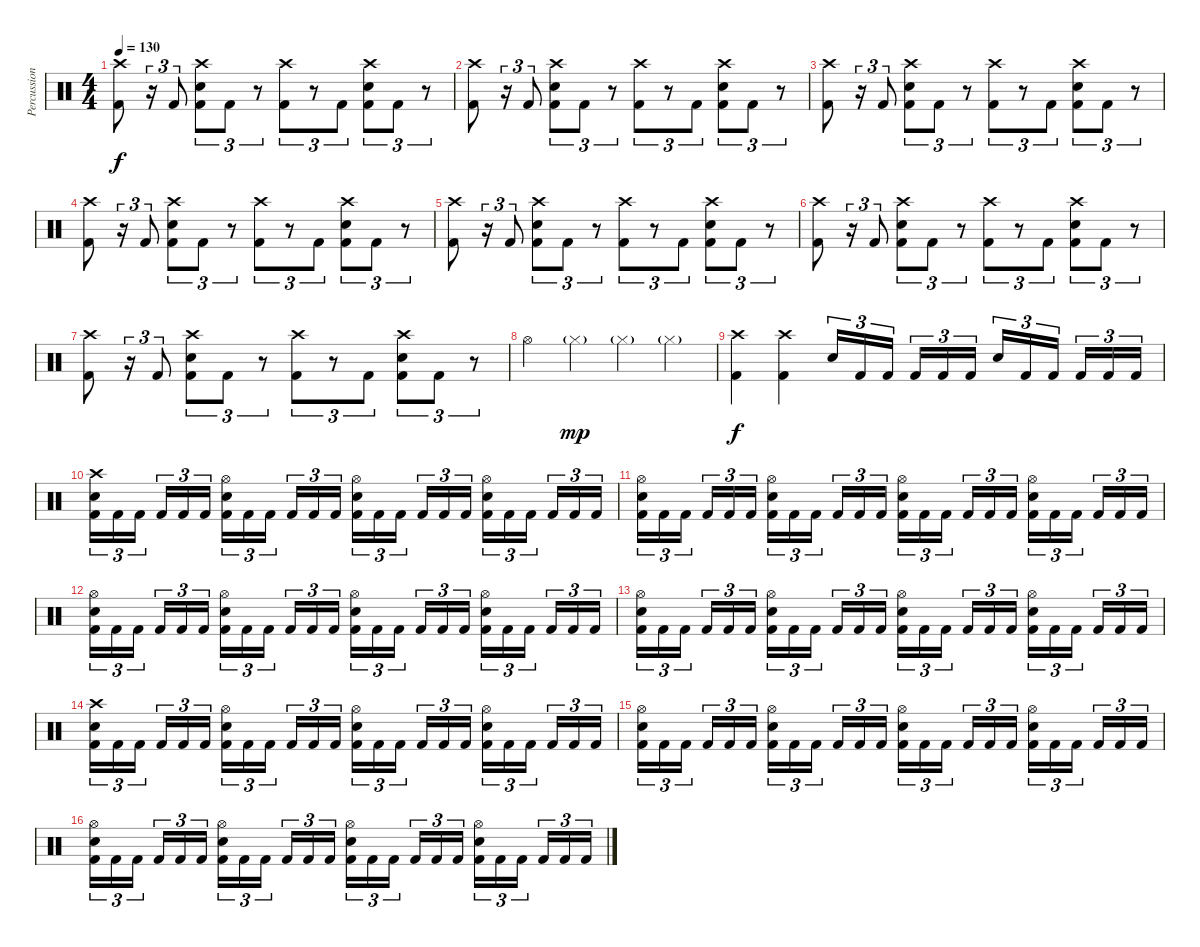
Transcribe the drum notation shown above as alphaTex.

\track ("Percussion" "Percussion") {instrument percussion}
\staff {score}
\articulation defaults
\ts (4 4)
\tempo 130
\clef neutral
\ks c
("Crash high (hit)" "Kick (hit) 2").8{dy f} r.16{tu (3 2)} "Kick (hit) 2".8{tu (3 2)} ("Crash high (hit)" "Electric Snare (hit)" "Kick (hit) 2").8{tu (3 2)} "Kick (hit) 2".8{tu (3 2)} r.8{tu (3 2)} ("Crash high (hit)" "Kick (hit) 2").8{tu (3 2)} r.8{tu (3 2)} "Kick (hit) 2".8{tu (3 2)} ("Crash high (hit)" "Electric Snare (hit)" "Kick (hit) 2").8{tu (3 2)} "Kick (hit) 2".8{tu (3 2)} r.8{tu (3 2)} |
("Crash high (hit)" "Kick (hit) 2").8 r.16{tu (3 2)} "Kick (hit) 2".8{tu (3 2)} ("Crash high (hit)" "Electric Snare (hit)" "Kick (hit) 2").8{tu (3 2)} "Kick (hit) 2".8{tu (3 2)} r.8{tu (3 2)} ("Crash high (hit)" "Kick (hit) 2").8{tu (3 2)} r.8{tu (3 2)} "Kick (hit) 2".8{tu (3 2)} ("Crash high (hit)" "Electric Snare (hit)" "Kick (hit) 2").8{tu (3 2)} "Kick (hit) 2".8{tu (3 2)} r.8{tu (3 2)} |
("Crash high (hit)" "Kick (hit) 2").8 r.16{tu (3 2)} "Kick (hit) 2".8{tu (3 2)} ("Crash high (hit)" "Electric Snare (hit)" "Kick (hit) 2").8{tu (3 2)} "Kick (hit) 2".8{tu (3 2)} r.8{tu (3 2)} ("Crash high (hit)" "Kick (hit) 2").8{tu (3 2)} r.8{tu (3 2)} "Kick (hit) 2".8{tu (3 2)} ("Crash high (hit)" "Electric Snare (hit)" "Kick (hit) 2").8{tu (3 2)} "Kick (hit) 2".8{tu (3 2)} r.8{tu (3 2)} |
("Crash high (hit)" "Kick (hit) 2").8 r.16{tu (3 2)} "Kick (hit) 2".8{tu (3 2)} ("Crash high (hit)" "Electric Snare (hit)" "Kick (hit) 2").8{tu (3 2)} "Kick (hit) 2".8{tu (3 2)} r.8{tu (3 2)} ("Crash high (hit)" "Kick (hit) 2").8{tu (3 2)} r.8{tu (3 2)} "Kick (hit) 2".8{tu (3 2)} ("Crash high (hit)" "Electric Snare (hit)" "Kick (hit) 2").8{tu (3 2)} "Kick (hit) 2".8{tu (3 2)} r.8{tu (3 2)} |
("Crash high (hit)" "Kick (hit) 2").8 r.16{tu (3 2)} "Kick (hit) 2".8{tu (3 2)} ("Crash high (hit)" "Electric Snare (hit)" "Kick (hit) 2").8{tu (3 2)} "Kick (hit) 2".8{tu (3 2)} r.8{tu (3 2)} ("Crash high (hit)" "Kick (hit) 2").8{tu (3 2)} r.8{tu (3 2)} "Kick (hit) 2".8{tu (3 2)} ("Crash high (hit)" "Electric Snare (hit)" "Kick (hit) 2").8{tu (3 2)} "Kick (hit) 2".8{tu (3 2)} r.8{tu (3 2)} |
("Crash high (hit)" "Kick (hit) 2").8 r.16{tu (3 2)} "Kick (hit) 2".8{tu (3 2)} ("Crash high (hit)" "Electric Snare (hit)" "Kick (hit) 2").8{tu (3 2)} "Kick (hit) 2".8{tu (3 2)} r.8{tu (3 2)} ("Crash high (hit)" "Kick (hit) 2").8{tu (3 2)} r.8{tu (3 2)} "Kick (hit) 2".8{tu (3 2)} ("Crash high (hit)" "Electric Snare (hit)" "Kick (hit) 2").8{tu (3 2)} "Kick (hit) 2".8{tu (3 2)} r.8{tu (3 2)} |
("Crash high (hit)" "Kick (hit) 2").8 r.16{tu (3 2)} "Kick (hit) 2".8{tu (3 2)} ("Crash high (hit)" "Electric Snare (hit)" "Kick (hit) 2").8{tu (3 2)} "Kick (hit) 2".8{tu (3 2)} r.8{tu (3 2)} ("Crash high (hit)" "Kick (hit) 2").8{tu (3 2)} r.8{tu (3 2)} "Kick (hit) 2".8{tu (3 2)} ("Crash high (hit)" "Electric Snare (hit)" "Kick (hit) 2").8{tu (3 2)} "Kick (hit) 2".8{tu (3 2)} r.8{tu (3 2)} |
"Hi-Hat (open)".4 "Hi-Hat (closed)"{g}.4{dy mp} "Hi-Hat (closed)"{g}.4 "Hi-Hat (closed)"{g}.4 |
("Crash high (hit)" "Kick (hit) 2").4{dy f} ("Crash high (hit)" "Kick (hit) 2").4 "Electric Snare (hit)".16{tu (3 2)} "Kick (hit) 2".16{tu (3 2)} "Kick (hit) 2".16{tu (3 2) beam splitsecondary} "Kick (hit) 2".16{tu (3 2)} "Kick (hit) 2".16{tu (3 2)} "Kick (hit) 2".16{tu (3 2)} "Electric Snare (hit)".16{tu (3 2)} "Kick (hit) 2".16{tu (3 2)} "Kick (hit) 2".16{tu (3 2) beam splitsecondary} "Kick (hit) 2".16{tu (3 2)} "Kick (hit) 2".16{tu (3 2)} "Kick (hit) 2".16{tu (3 2)} |
("Crash high (hit)" "Electric Snare (hit)" "Kick (hit) 2").16{tu (3 2)} "Kick (hit) 2".16{tu (3 2)} "Kick (hit) 2".16{tu (3 2) beam splitsecondary} "Kick (hit) 2".16{tu (3 2)} "Kick (hit) 2".16{tu (3 2)} "Kick (hit) 2".16{tu (3 2)} ("Hi-Hat (open)" "Electric Snare (hit)" "Kick (hit) 2").16{tu (3 2)} "Kick (hit) 2".16{tu (3 2)} "Kick (hit) 2".16{tu (3 2) beam splitsecondary} "Kick (hit) 2".16{tu (3 2)} "Kick (hit) 2".16{tu (3 2)} "Kick (hit) 2".16{tu (3 2)} ("Hi-Hat (open)" "Electric Snare (hit)" "Kick (hit) 2").16{tu (3 2)} "Kick (hit) 2".16{tu (3 2)} "Kick (hit) 2".16{tu (3 2) beam splitsecondary} "Kick (hit) 2".16{tu (3 2)} "Kick (hit) 2".16{tu (3 2)} "Kick (hit) 2".16{tu (3 2)} ("Hi-Hat (open)" "Electric Snare (hit)" "Kick (hit) 2").16{tu (3 2)} "Kick (hit) 2".16{tu (3 2)} "Kick (hit) 2".16{tu (3 2) beam splitsecondary} "Kick (hit) 2".16{tu (3 2)} "Kick (hit) 2".16{tu (3 2)} "Kick (hit) 2".16{tu (3 2)} |
("Hi-Hat (open)" "Electric Snare (hit)" "Kick (hit) 2").16{tu (3 2)} "Kick (hit) 2".16{tu (3 2)} "Kick (hit) 2".16{tu (3 2) beam splitsecondary} "Kick (hit) 2".16{tu (3 2)} "Kick (hit) 2".16{tu (3 2)} "Kick (hit) 2".16{tu (3 2)} ("Hi-Hat (open)" "Electric Snare (hit)" "Kick (hit) 2").16{tu (3 2)} "Kick (hit) 2".16{tu (3 2)} "Kick (hit) 2".16{tu (3 2) beam splitsecondary} "Kick (hit) 2".16{tu (3 2)} "Kick (hit) 2".16{tu (3 2)} "Kick (hit) 2".16{tu (3 2)} ("Hi-Hat (open)" "Electric Snare (hit)" "Kick (hit) 2").16{tu (3 2)} "Kick (hit) 2".16{tu (3 2)} "Kick (hit) 2".16{tu (3 2) beam splitsecondary} "Kick (hit) 2".16{tu (3 2)} "Kick (hit) 2".16{tu (3 2)} "Kick (hit) 2".16{tu (3 2)} ("Hi-Hat (open)" "Electric Snare (hit)" "Kick (hit) 2").16{tu (3 2)} "Kick (hit) 2".16{tu (3 2)} "Kick (hit) 2".16{tu (3 2) beam splitsecondary} "Kick (hit) 2".16{tu (3 2)} "Kick (hit) 2".16{tu (3 2)} "Kick (hit) 2".16{tu (3 2)} |
("Hi-Hat (open)" "Electric Snare (hit)" "Kick (hit) 2").16{tu (3 2)} "Kick (hit) 2".16{tu (3 2)} "Kick (hit) 2".16{tu (3 2) beam splitsecondary} "Kick (hit) 2".16{tu (3 2)} "Kick (hit) 2".16{tu (3 2)} "Kick (hit) 2".16{tu (3 2)} ("Hi-Hat (open)" "Electric Snare (hit)" "Kick (hit) 2").16{tu (3 2)} "Kick (hit) 2".16{tu (3 2)} "Kick (hit) 2".16{tu (3 2) beam splitsecondary} "Kick (hit) 2".16{tu (3 2)} "Kick (hit) 2".16{tu (3 2)} "Kick (hit) 2".16{tu (3 2)} ("Hi-Hat (open)" "Electric Snare (hit)" "Kick (hit) 2").16{tu (3 2)} "Kick (hit) 2".16{tu (3 2)} "Kick (hit) 2".16{tu (3 2) beam splitsecondary} "Kick (hit) 2".16{tu (3 2)} "Kick (hit) 2".16{tu (3 2)} "Kick (hit) 2".16{tu (3 2)} ("Hi-Hat (open)" "Electric Snare (hit)" "Kick (hit) 2").16{tu (3 2)} "Kick (hit) 2".16{tu (3 2)} "Kick (hit) 2".16{tu (3 2) beam splitsecondary} "Kick (hit) 2".16{tu (3 2)} "Kick (hit) 2".16{tu (3 2)} "Kick (hit) 2".16{tu (3 2)} |
("Hi-Hat (open)" "Electric Snare (hit)" "Kick (hit) 2").16{tu (3 2)} "Kick (hit) 2".16{tu (3 2)} "Kick (hit) 2".16{tu (3 2) beam splitsecondary} "Kick (hit) 2".16{tu (3 2)} "Kick (hit) 2".16{tu (3 2)} "Kick (hit) 2".16{tu (3 2)} ("Hi-Hat (open)" "Electric Snare (hit)" "Kick (hit) 2").16{tu (3 2)} "Kick (hit) 2".16{tu (3 2)} "Kick (hit) 2".16{tu (3 2) beam splitsecondary} "Kick (hit) 2".16{tu (3 2)} "Kick (hit) 2".16{tu (3 2)} "Kick (hit) 2".16{tu (3 2)} ("Hi-Hat (open)" "Electric Snare (hit)" "Kick (hit) 2").16{tu (3 2)} "Kick (hit) 2".16{tu (3 2)} "Kick (hit) 2".16{tu (3 2) beam splitsecondary} "Kick (hit) 2".16{tu (3 2)} "Kick (hit) 2".16{tu (3 2)} "Kick (hit) 2".16{tu (3 2)} ("Hi-Hat (open)" "Electric Snare (hit)" "Kick (hit) 2").16{tu (3 2)} "Kick (hit) 2".16{tu (3 2)} "Kick (hit) 2".16{tu (3 2) beam splitsecondary} "Kick (hit) 2".16{tu (3 2)} "Kick (hit) 2".16{tu (3 2)} "Kick (hit) 2".16{tu (3 2)} |
("Crash high (hit)" "Electric Snare (hit)" "Kick (hit) 2").16{tu (3 2)} "Kick (hit) 2".16{tu (3 2)} "Kick (hit) 2".16{tu (3 2) beam splitsecondary} "Kick (hit) 2".16{tu (3 2)} "Kick (hit) 2".16{tu (3 2)} "Kick (hit) 2".16{tu (3 2)} ("Hi-Hat (open)" "Electric Snare (hit)" "Kick (hit) 2").16{tu (3 2)} "Kick (hit) 2".16{tu (3 2)} "Kick (hit) 2".16{tu (3 2) beam splitsecondary} "Kick (hit) 2".16{tu (3 2)} "Kick (hit) 2".16{tu (3 2)} "Kick (hit) 2".16{tu (3 2)} ("Hi-Hat (open)" "Electric Snare (hit)" "Kick (hit) 2").16{tu (3 2)} "Kick (hit) 2".16{tu (3 2)} "Kick (hit) 2".16{tu (3 2) beam splitsecondary} "Kick (hit) 2".16{tu (3 2)} "Kick (hit) 2".16{tu (3 2)} "Kick (hit) 2".16{tu (3 2)} ("Hi-Hat (open)" "Electric Snare (hit)" "Kick (hit) 2").16{tu (3 2)} "Kick (hit) 2".16{tu (3 2)} "Kick (hit) 2".16{tu (3 2) beam splitsecondary} "Kick (hit) 2".16{tu (3 2)} "Kick (hit) 2".16{tu (3 2)} "Kick (hit) 2".16{tu (3 2)} |
("Hi-Hat (open)" "Electric Snare (hit)" "Kick (hit) 2").16{tu (3 2)} "Kick (hit) 2".16{tu (3 2)} "Kick (hit) 2".16{tu (3 2) beam splitsecondary} "Kick (hit) 2".16{tu (3 2)} "Kick (hit) 2".16{tu (3 2)} "Kick (hit) 2".16{tu (3 2)} ("Hi-Hat (open)" "Electric Snare (hit)" "Kick (hit) 2").16{tu (3 2)} "Kick (hit) 2".16{tu (3 2)} "Kick (hit) 2".16{tu (3 2) beam splitsecondary} "Kick (hit) 2".16{tu (3 2)} "Kick (hit) 2".16{tu (3 2)} "Kick (hit) 2".16{tu (3 2)} ("Hi-Hat (open)" "Electric Snare (hit)" "Kick (hit) 2").16{tu (3 2)} "Kick (hit) 2".16{tu (3 2)} "Kick (hit) 2".16{tu (3 2) beam splitsecondary} "Kick (hit) 2".16{tu (3 2)} "Kick (hit) 2".16{tu (3 2)} "Kick (hit) 2".16{tu (3 2)} ("Hi-Hat (open)" "Electric Snare (hit)" "Kick (hit) 2").16{tu (3 2)} "Kick (hit) 2".16{tu (3 2)} "Kick (hit) 2".16{tu (3 2) beam splitsecondary} "Kick (hit) 2".16{tu (3 2)} "Kick (hit) 2".16{tu (3 2)} "Kick (hit) 2".16{tu (3 2)} |
("Hi-Hat (open)" "Electric Snare (hit)" "Kick (hit) 2").16{tu (3 2)} "Kick (hit) 2".16{tu (3 2)} "Kick (hit) 2".16{tu (3 2) beam splitsecondary} "Kick (hit) 2".16{tu (3 2)} "Kick (hit) 2".16{tu (3 2)} "Kick (hit) 2".16{tu (3 2)} ("Hi-Hat (open)" "Electric Snare (hit)" "Kick (hit) 2").16{tu (3 2)} "Kick (hit) 2".16{tu (3 2)} "Kick (hit) 2".16{tu (3 2) beam splitsecondary} "Kick (hit) 2".16{tu (3 2)} "Kick (hit) 2".16{tu (3 2)} "Kick (hit) 2".16{tu (3 2)} ("Hi-Hat (open)" "Electric Snare (hit)" "Kick (hit) 2").16{tu (3 2)} "Kick (hit) 2".16{tu (3 2)} "Kick (hit) 2".16{tu (3 2) beam splitsecondary} "Kick (hit) 2".16{tu (3 2)} "Kick (hit) 2".16{tu (3 2)} "Kick (hit) 2".16{tu (3 2)} ("Hi-Hat (open)" "Electric Snare (hit)" "Kick (hit) 2").16{tu (3 2)} "Kick (hit) 2".16{tu (3 2)} "Kick (hit) 2".16{tu (3 2) beam splitsecondary} "Kick (hit) 2".16{tu (3 2)} "Kick (hit) 2".16{tu (3 2)} "Kick (hit) 2".16{tu (3 2)}
